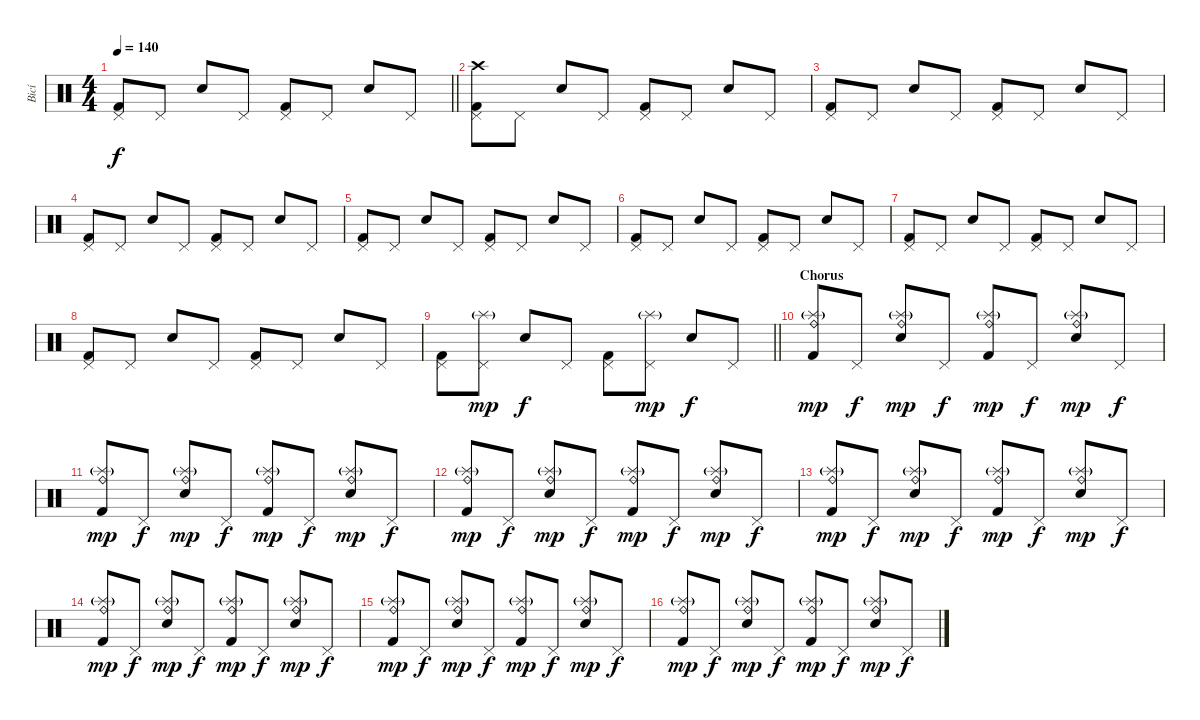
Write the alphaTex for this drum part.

\track ("Bicí" "Bicí") {instrument percussion}
\staff {score}
\articulation defaults
\ts (4 4)
\tempo 140
\clef neutral
\barLineRight lightlight
\ks c
("Pedal Hi-Hat (hit)" "Kick (hit) 2").8{dy f} "Pedal Hi-Hat (hit)".8 "Electric Snare (hit)".8 "Pedal Hi-Hat (hit)".8 ("Pedal Hi-Hat (hit)" "Kick (hit) 2").8 "Pedal Hi-Hat (hit)".8 "Electric Snare (hit)".8 "Pedal Hi-Hat (hit)".8 |
\section ("" "")
("Crash high (hit)" "Pedal Hi-Hat (hit)" "Kick (hit) 2").8 "Pedal Hi-Hat (hit)".8 "Electric Snare (hit)".8 "Pedal Hi-Hat (hit)".8 ("Pedal Hi-Hat (hit)" "Kick (hit) 2").8 "Pedal Hi-Hat (hit)".8 "Electric Snare (hit)".8 "Pedal Hi-Hat (hit)".8 |
("Pedal Hi-Hat (hit)" "Kick (hit) 2").8 "Pedal Hi-Hat (hit)".8 "Electric Snare (hit)".8 "Pedal Hi-Hat (hit)".8 ("Pedal Hi-Hat (hit)" "Kick (hit) 2").8 "Pedal Hi-Hat (hit)".8 "Electric Snare (hit)".8 "Pedal Hi-Hat (hit)".8 |
("Pedal Hi-Hat (hit)" "Kick (hit) 2").8 "Pedal Hi-Hat (hit)".8 "Electric Snare (hit)".8 "Pedal Hi-Hat (hit)".8 ("Pedal Hi-Hat (hit)" "Kick (hit) 2").8 "Pedal Hi-Hat (hit)".8 "Electric Snare (hit)".8 "Pedal Hi-Hat (hit)".8 |
("Pedal Hi-Hat (hit)" "Kick (hit) 2").8 "Pedal Hi-Hat (hit)".8 "Electric Snare (hit)".8 "Pedal Hi-Hat (hit)".8 ("Pedal Hi-Hat (hit)" "Kick (hit) 2").8 "Pedal Hi-Hat (hit)".8 "Electric Snare (hit)".8 "Pedal Hi-Hat (hit)".8 |
("Pedal Hi-Hat (hit)" "Kick (hit) 2").8 "Pedal Hi-Hat (hit)".8 "Electric Snare (hit)".8 "Pedal Hi-Hat (hit)".8 ("Pedal Hi-Hat (hit)" "Kick (hit) 2").8 "Pedal Hi-Hat (hit)".8 "Electric Snare (hit)".8 "Pedal Hi-Hat (hit)".8 |
("Pedal Hi-Hat (hit)" "Kick (hit) 2").8 "Pedal Hi-Hat (hit)".8 "Electric Snare (hit)".8 "Pedal Hi-Hat (hit)".8 ("Pedal Hi-Hat (hit)" "Kick (hit) 2").8 "Pedal Hi-Hat (hit)".8 "Electric Snare (hit)".8 "Pedal Hi-Hat (hit)".8 |
("Pedal Hi-Hat (hit)" "Kick (hit) 2").8 "Pedal Hi-Hat (hit)".8 "Electric Snare (hit)".8 "Pedal Hi-Hat (hit)".8 ("Pedal Hi-Hat (hit)" "Kick (hit) 2").8 "Pedal Hi-Hat (hit)".8 "Electric Snare (hit)".8 "Pedal Hi-Hat (hit)".8 |
\barLineRight lightlight
("Pedal Hi-Hat (hit)" "Kick (hit) 2").8 ("Pedal Hi-Hat (hit)" "Splash (hit)"{g}).8{dy mp} "Electric Snare (hit)".8{dy f} "Pedal Hi-Hat (hit)".8 ("Pedal Hi-Hat (hit)" "Kick (hit) 2").8 ("Pedal Hi-Hat (hit)" "Splash (hit)"{g}).8{dy mp} "Electric Snare (hit)".8{dy f} "Pedal Hi-Hat (hit)".8 |
\section ("" "Chorus")
("Ride (bell)" "Splash (hit)"{g} "Kick (hit) 2").8{dy mp} "Pedal Hi-Hat (hit)".8{dy f} ("Ride (bell)" "Splash (hit)"{g} "Electric Snare (hit)").8{dy mp} "Pedal Hi-Hat (hit)".8{dy f} ("Ride (bell)" "Splash (hit)"{g} "Kick (hit) 2").8{dy mp} "Pedal Hi-Hat (hit)".8{dy f} ("Ride (bell)" "Splash (hit)"{g} "Electric Snare (hit)").8{dy mp} "Pedal Hi-Hat (hit)".8{dy f} |
("Ride (bell)" "Splash (hit)"{g} "Kick (hit) 2").8{dy mp} "Pedal Hi-Hat (hit)".8{dy f} ("Ride (bell)" "Splash (hit)"{g} "Electric Snare (hit)").8{dy mp} "Pedal Hi-Hat (hit)".8{dy f} ("Ride (bell)" "Splash (hit)"{g} "Kick (hit) 2").8{dy mp} "Pedal Hi-Hat (hit)".8{dy f} ("Ride (bell)" "Splash (hit)"{g} "Electric Snare (hit)").8{dy mp} "Pedal Hi-Hat (hit)".8{dy f} |
("Ride (bell)" "Splash (hit)"{g} "Kick (hit) 2").8{dy mp} "Pedal Hi-Hat (hit)".8{dy f} ("Ride (bell)" "Splash (hit)"{g} "Electric Snare (hit)").8{dy mp} "Pedal Hi-Hat (hit)".8{dy f} ("Ride (bell)" "Splash (hit)"{g} "Kick (hit) 2").8{dy mp} "Pedal Hi-Hat (hit)".8{dy f} ("Ride (bell)" "Splash (hit)"{g} "Electric Snare (hit)").8{dy mp} "Pedal Hi-Hat (hit)".8{dy f} |
("Ride (bell)" "Splash (hit)"{g} "Kick (hit) 2").8{dy mp} "Pedal Hi-Hat (hit)".8{dy f} ("Ride (bell)" "Splash (hit)"{g} "Electric Snare (hit)").8{dy mp} "Pedal Hi-Hat (hit)".8{dy f} ("Ride (bell)" "Splash (hit)"{g} "Kick (hit) 2").8{dy mp} "Pedal Hi-Hat (hit)".8{dy f} ("Ride (bell)" "Splash (hit)"{g} "Electric Snare (hit)").8{dy mp} "Pedal Hi-Hat (hit)".8{dy f} |
("Ride (bell)" "Splash (hit)"{g} "Kick (hit) 2").8{dy mp} "Pedal Hi-Hat (hit)".8{dy f} ("Ride (bell)" "Splash (hit)"{g} "Electric Snare (hit)").8{dy mp} "Pedal Hi-Hat (hit)".8{dy f} ("Ride (bell)" "Splash (hit)"{g} "Kick (hit) 2").8{dy mp} "Pedal Hi-Hat (hit)".8{dy f} ("Ride (bell)" "Splash (hit)"{g} "Electric Snare (hit)").8{dy mp} "Pedal Hi-Hat (hit)".8{dy f} |
("Ride (bell)" "Splash (hit)"{g} "Kick (hit) 2").8{dy mp} "Pedal Hi-Hat (hit)".8{dy f} ("Ride (bell)" "Splash (hit)"{g} "Electric Snare (hit)").8{dy mp} "Pedal Hi-Hat (hit)".8{dy f} ("Ride (bell)" "Splash (hit)"{g} "Kick (hit) 2").8{dy mp} "Pedal Hi-Hat (hit)".8{dy f} ("Ride (bell)" "Splash (hit)"{g} "Electric Snare (hit)").8{dy mp} "Pedal Hi-Hat (hit)".8{dy f} |
("Ride (bell)" "Splash (hit)"{g} "Kick (hit) 2").8{dy mp} "Pedal Hi-Hat (hit)".8{dy f} ("Ride (bell)" "Splash (hit)"{g} "Electric Snare (hit)").8{dy mp} "Pedal Hi-Hat (hit)".8{dy f} ("Ride (bell)" "Splash (hit)"{g} "Kick (hit) 2").8{dy mp} "Pedal Hi-Hat (hit)".8{dy f} ("Ride (bell)" "Splash (hit)"{g} "Electric Snare (hit)").8{dy mp} "Pedal Hi-Hat (hit)".8{dy f}
